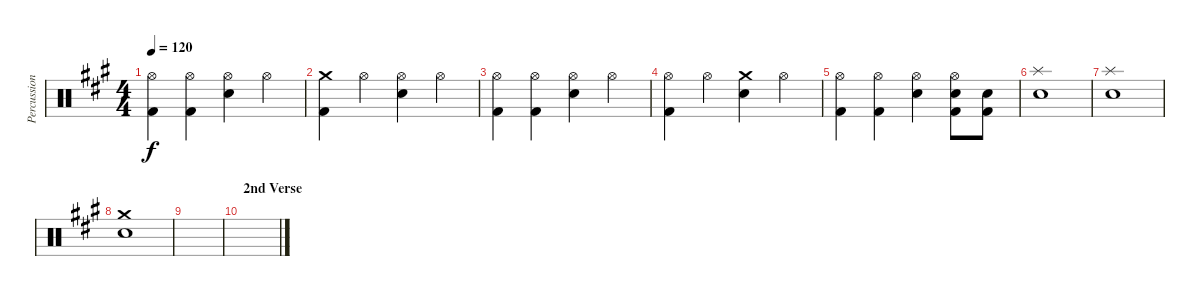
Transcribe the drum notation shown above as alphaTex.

\track ("Percussion" "Percussion") {instrument percussion}
\staff {score}
\articulation defaults
\ts (4 4)
\tempo 120
\clef neutral
\ks a
("Hi-Hat (open)" "Kick (hit) 2").4{dy f} ("Hi-Hat (open)" "Kick (hit) 2").4 ("Hi-Hat (open)" "Snare (hit) 2").4 "Hi-Hat (open)".4 |
("Crash medium (hit)" "Kick (hit) 2").4 "Hi-Hat (open)".4 ("Hi-Hat (open)" "Snare (hit) 2").4 "Hi-Hat (open)".4 |
("Hi-Hat (open)" "Kick (hit) 2").4 ("Hi-Hat (open)" "Kick (hit) 2").4 ("Hi-Hat (open)" "Snare (hit) 2").4 "Hi-Hat (open)".4 |
("Hi-Hat (open)" "Kick (hit) 2").4 "Hi-Hat (open)".4 ("Crash medium (hit)" "Snare (hit) 2").4 "Hi-Hat (open)".4 |
("Hi-Hat (open)" "Kick (hit) 2").4 ("Hi-Hat (open)" "Kick (hit) 2").4 ("Hi-Hat (open)" "Snare (hit) 2").4 ("Hi-Hat (open)" "Snare (hit) 2" "Kick (hit) 2").8 ("Snare (hit) 2" "Kick (hit) 2").8 |
("Splash (hit)" "Snare (hit) 2").1 |
("Splash (hit)" "Snare (hit) 2").1 |
("Crash medium (hit)" "Snare (hit) 2").1 |
|
\section ("" "2nd Verse")
